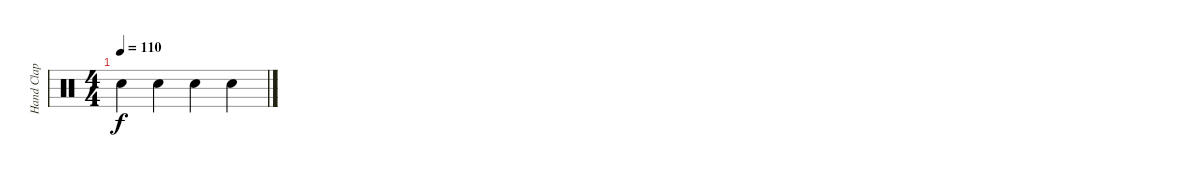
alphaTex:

\track ("Hand Clap" "Hand Clap") {instrument percussion}
\staff {score}
\articulation defaults
\ts (4 4)
\tempo 110
\clef neutral
\ks c "Hand Clap (hit)".4{dy f} "Hand Clap (hit)".4 "Hand Clap (hit)".4 "Hand Clap (hit)".4
